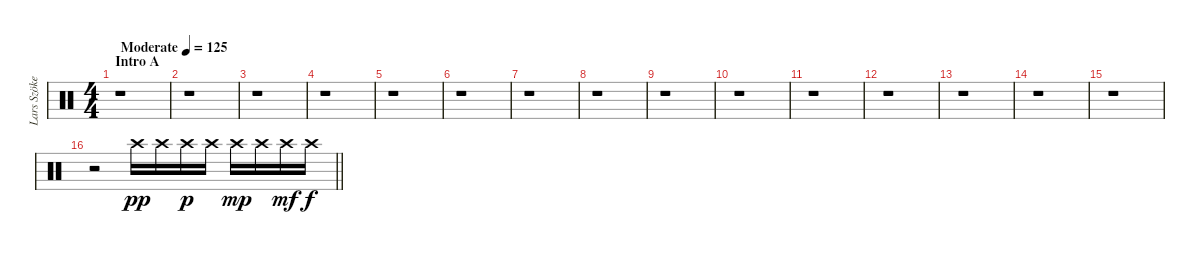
\track ("Lars Szöke" "Lars Szöke") {instrument percussion}
\staff {score}
\articulation defaults
\ts (4 4)
\section ("" "Intro A")
\tempo (125 "Moderate")
\clef neutral
\ks c
r.1{dy pp} |
r.1 |
r.1 |
r.1 |
r.1 |
r.1 |
r.1 |
r.1 |
r.1 |
r.1 |
r.1 |
r.1 |
r.1 |
r.1 |
r.1 |
\barLineRight lightlight
r.2 "Crash high (hit)".16 "Crash high (hit)".16 "Crash high (hit)".16{dy p} "Crash high (hit)".16 "Crash high (hit)".16{dy mp} "Crash high (hit)".16 "Crash high (hit)".16{dy mf} "Crash high (hit)".16{dy f}
